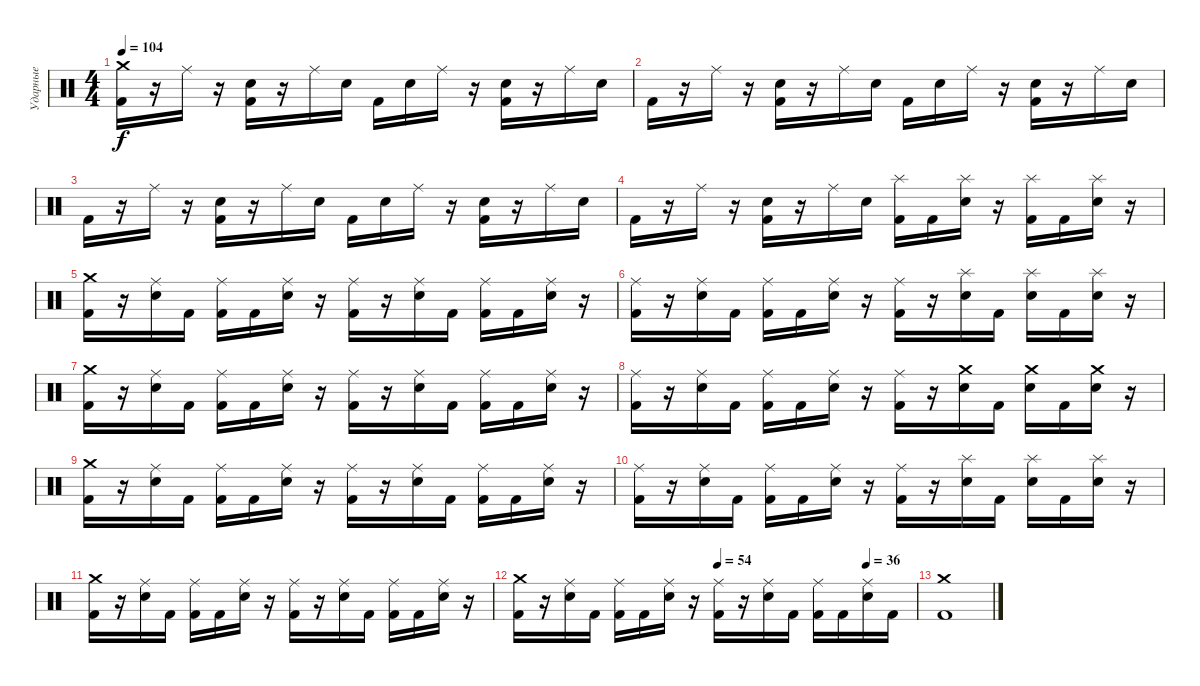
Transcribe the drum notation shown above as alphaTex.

\track ("Ударные" "Ударные") {instrument percussion}
\staff {score}
\articulation defaults
\ts (4 4)
\tempo 104
\clef neutral
\ks c
("Crash medium (hit)" "Kick (hit) 2").16{dy f} r.16 "Ride (middle)".16 r.16 ("Electric Snare (hit)" "Kick (hit) 2").16 r.16 "Ride (middle)".16 "Electric Snare (hit)".16 "Kick (hit) 2".16 "Electric Snare (hit)".16 "Ride (middle)".16 r.16 ("Electric Snare (hit)" "Kick (hit) 2").16 r.16 "Ride (middle)".16 "Electric Snare (hit)".16 |
"Kick (hit) 2".16 r.16 "Ride (middle)".16 r.16 ("Electric Snare (hit)" "Kick (hit) 2").16 r.16 "Ride (middle)".16 "Electric Snare (hit)".16 "Kick (hit) 2".16 "Electric Snare (hit)".16 "Ride (middle)".16 r.16 ("Electric Snare (hit)" "Kick (hit) 2").16 r.16 "Ride (middle)".16 "Electric Snare (hit)".16 |
"Kick (hit) 2".16 r.16 "Ride (middle)".16 r.16 ("Electric Snare (hit)" "Kick (hit) 2").16 r.16 "Ride (middle)".16 "Electric Snare (hit)".16 "Kick (hit) 2".16 "Electric Snare (hit)".16 "Ride (middle)".16 r.16 ("Electric Snare (hit)" "Kick (hit) 2").16 r.16 "Ride (middle)".16 "Electric Snare (hit)".16 |
"Kick (hit) 2".16 r.16 "Ride (middle)".16 r.16 ("Electric Snare (hit)" "Kick (hit) 2").16 r.16 "Ride (middle)".16 "Electric Snare (hit)".16 ("Splash (hit)" "Kick (hit) 2").16 "Kick (hit) 2".16 ("Splash (hit)" "Electric Snare (hit)").16 r.16 ("Splash (hit)" "Kick (hit) 2").16 "Kick (hit) 2".16 ("Splash (hit)" "Electric Snare (hit)").16 r.16 |
("Crash medium (hit)" "Kick (hit) 2").16 r.16 ("Ride (middle)" "Electric Snare (hit)").16 "Kick (hit) 2".16 ("Ride (middle)" "Kick (hit) 2").16 "Kick (hit) 2".16 ("Ride (middle)" "Electric Snare (hit)").16 r.16 ("Ride (middle)" "Kick (hit) 2").16 r.16 ("Ride (middle)" "Electric Snare (hit)").16 "Kick (hit) 2".16 ("Ride (middle)" "Kick (hit) 2").16 "Kick (hit) 2".16 ("Ride (middle)" "Electric Snare (hit)").16 r.16 |
("Ride (middle)" "Kick (hit) 2").16 r.16 ("Ride (middle)" "Electric Snare (hit)").16 "Kick (hit) 2".16 ("Ride (middle)" "Kick (hit) 2").16 "Kick (hit) 2".16 ("Ride (middle)" "Electric Snare (hit)").16 r.16 ("Ride (middle)" "Kick (hit) 2").16 r.16 ("Splash (hit)" "Electric Snare (hit)").16 "Kick (hit) 2".16 ("Splash (hit)" "Electric Snare (hit)").16 "Kick (hit) 2".16 ("Splash (hit)" "Electric Snare (hit)").16 r.16 |
("Crash medium (hit)" "Kick (hit) 2").16 r.16 ("Ride (middle)" "Electric Snare (hit)").16 "Kick (hit) 2".16 ("Ride (middle)" "Kick (hit) 2").16 "Kick (hit) 2".16 ("Ride (middle)" "Electric Snare (hit)").16 r.16 ("Ride (middle)" "Kick (hit) 2").16 r.16 ("Ride (middle)" "Electric Snare (hit)").16 "Kick (hit) 2".16 ("Ride (middle)" "Kick (hit) 2").16 "Kick (hit) 2".16 ("Ride (middle)" "Electric Snare (hit)").16 r.16 |
("Ride (middle)" "Kick (hit) 2").16 r.16 ("Ride (middle)" "Electric Snare (hit)").16 "Kick (hit) 2".16 ("Ride (middle)" "Kick (hit) 2").16 "Kick (hit) 2".16 ("Ride (middle)" "Electric Snare (hit)").16 r.16 ("Ride (middle)" "Kick (hit) 2").16 r.16 ("Crash medium (hit)" "Electric Snare (hit)").16 "Kick (hit) 2".16 ("Crash medium (hit)" "Electric Snare (hit)").16 "Kick (hit) 2".16 ("Crash medium (hit)" "Electric Snare (hit)").16 r.16 |
("Crash medium (hit)" "Kick (hit) 2").16 r.16 ("Ride (middle)" "Electric Snare (hit)").16 "Kick (hit) 2".16 ("Ride (middle)" "Kick (hit) 2").16 "Kick (hit) 2".16 ("Ride (middle)" "Electric Snare (hit)").16 r.16 ("Ride (middle)" "Kick (hit) 2").16 r.16 ("Ride (middle)" "Electric Snare (hit)").16 "Kick (hit) 2".16 ("Ride (middle)" "Kick (hit) 2").16 "Kick (hit) 2".16 ("Ride (middle)" "Electric Snare (hit)").16 r.16 |
("Ride (middle)" "Kick (hit) 2").16 r.16 ("Ride (middle)" "Electric Snare (hit)").16 "Kick (hit) 2".16 ("Ride (middle)" "Kick (hit) 2").16 "Kick (hit) 2".16 ("Ride (middle)" "Electric Snare (hit)").16 r.16 ("Ride (middle)" "Kick (hit) 2").16 r.16 ("Splash (hit)" "Electric Snare (hit)").16 "Kick (hit) 2".16 ("Splash (hit)" "Electric Snare (hit)").16 "Kick (hit) 2".16 ("Splash (hit)" "Electric Snare (hit)").16 r.16 |
("Crash medium (hit)" "Kick (hit) 2").16 r.16 ("Ride (middle)" "Electric Snare (hit)").16 "Kick (hit) 2".16 ("Ride (middle)" "Kick (hit) 2").16 "Kick (hit) 2".16 ("Ride (middle)" "Electric Snare (hit)").16 r.16 ("Ride (middle)" "Kick (hit) 2").16 r.16 ("Ride (middle)" "Electric Snare (hit)").16 "Kick (hit) 2".16 ("Ride (middle)" "Kick (hit) 2").16 "Kick (hit) 2".16 ("Ride (middle)" "Electric Snare (hit)").16 r.16 |
\tempo (54 0.5)
\tempo (36 0.875)
("Crash medium (hit)" "Kick (hit) 2").16 r.16 ("Ride (middle)" "Electric Snare (hit)").16 "Kick (hit) 2".16 ("Ride (middle)" "Kick (hit) 2").16 "Kick (hit) 2".16 ("Ride (middle)" "Electric Snare (hit)").16 r.16 ("Ride (middle)" "Kick (hit) 2").16 r.16 ("Ride (middle)" "Electric Snare (hit)").16 "Kick (hit) 2".16 ("Ride (middle)" "Kick (hit) 2").16 "Kick (hit) 2".16 ("Ride (middle)" "Electric Snare (hit)").16 "Kick (hit) 2".16 |
("Kick (hit) 2" "Crash medium (hit)").1
